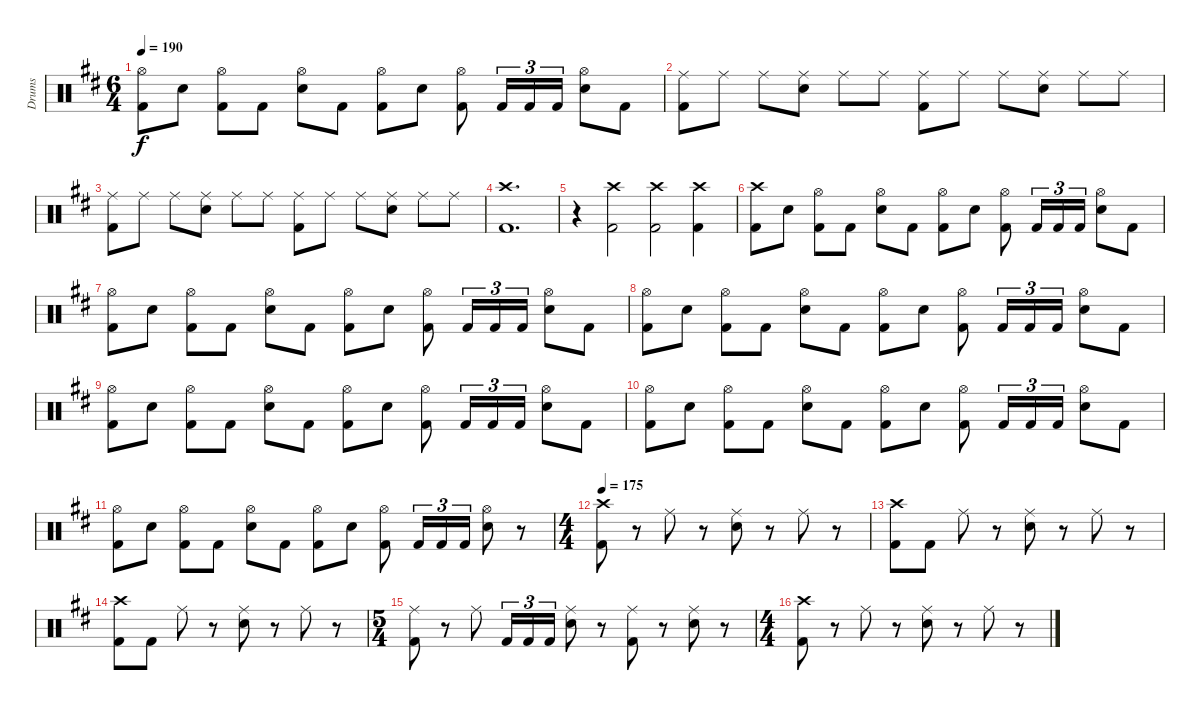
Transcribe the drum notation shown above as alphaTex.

\track ("Drums" "Drums") {instrument percussion}
\staff {score}
\articulation defaults
\ts (6 4)
\tempo 190
\clef neutral
\ks bminor
("Kick (hit) 2" "Hi-Hat (open)").8{dy f} "Electric Snare (hit)".8 ("Kick (hit) 2" "Hi-Hat (open)").8 "Kick (hit) 2".8 ("Electric Snare (hit)" "Hi-Hat (open)").8 "Kick (hit) 2".8 ("Kick (hit) 2" "Hi-Hat (open)").8 "Electric Snare (hit)".8 ("Kick (hit) 2" "Hi-Hat (open)").8 "Kick (hit) 2".16{tu (3 2)} "Kick (hit) 2".16{tu (3 2)} "Kick (hit) 2".16{tu (3 2)} ("Electric Snare (hit)" "Hi-Hat (open)").8 "Kick (hit) 2".8 |
("Kick (hit) 2" "Ride (middle)").8 "Ride (middle)".8 "Ride (middle)".8 ("Electric Snare (hit)" "Ride (middle)").8 "Ride (middle)".8 "Ride (middle)".8 ("Kick (hit) 2" "Ride (middle)").8 "Ride (middle)".8 "Ride (middle)".8 ("Electric Snare (hit)" "Ride (middle)").8 "Ride (middle)".8 "Ride (middle)".8 |
("Kick (hit) 2" "Ride (middle)").8 "Ride (middle)".8 "Ride (middle)".8 ("Electric Snare (hit)" "Ride (middle)").8 "Ride (middle)".8 "Ride (middle)".8 ("Kick (hit) 2" "Ride (middle)").8 "Ride (middle)".8 "Ride (middle)".8 ("Electric Snare (hit)" "Ride (middle)").8 "Ride (middle)".8 "Ride (middle)".8 |
("Kick (hit) 2" "Crash high (hit)").1{d} |
r.4 ("Kick (hit) 2" "Crash high (hit)").2 ("Kick (hit) 2" "Crash high (hit)").2 ("Kick (hit) 2" "Crash high (hit)").4 |
("Kick (hit) 2" "Crash high (hit)").8 "Electric Snare (hit)".8 ("Kick (hit) 2" "Hi-Hat (open)").8 "Kick (hit) 2".8 ("Electric Snare (hit)" "Hi-Hat (open)").8 "Kick (hit) 2".8 ("Kick (hit) 2" "Hi-Hat (open)").8 "Electric Snare (hit)".8 ("Kick (hit) 2" "Hi-Hat (open)").8 "Kick (hit) 2".16{tu (3 2)} "Kick (hit) 2".16{tu (3 2)} "Kick (hit) 2".16{tu (3 2)} ("Electric Snare (hit)" "Hi-Hat (open)").8 "Kick (hit) 2".8 |
("Kick (hit) 2" "Hi-Hat (open)").8 "Electric Snare (hit)".8 ("Kick (hit) 2" "Hi-Hat (open)").8 "Kick (hit) 2".8 ("Electric Snare (hit)" "Hi-Hat (open)").8 "Kick (hit) 2".8 ("Kick (hit) 2" "Hi-Hat (open)").8 "Electric Snare (hit)".8 ("Kick (hit) 2" "Hi-Hat (open)").8 "Kick (hit) 2".16{tu (3 2)} "Kick (hit) 2".16{tu (3 2)} "Kick (hit) 2".16{tu (3 2)} ("Electric Snare (hit)" "Hi-Hat (open)").8 "Kick (hit) 2".8 |
("Kick (hit) 2" "Hi-Hat (open)").8 "Electric Snare (hit)".8 ("Kick (hit) 2" "Hi-Hat (open)").8 "Kick (hit) 2".8 ("Electric Snare (hit)" "Hi-Hat (open)").8 "Kick (hit) 2".8 ("Kick (hit) 2" "Hi-Hat (open)").8 "Electric Snare (hit)".8 ("Kick (hit) 2" "Hi-Hat (open)").8 "Kick (hit) 2".16{tu (3 2)} "Kick (hit) 2".16{tu (3 2)} "Kick (hit) 2".16{tu (3 2)} ("Electric Snare (hit)" "Hi-Hat (open)").8 "Kick (hit) 2".8 |
("Kick (hit) 2" "Hi-Hat (open)").8 "Electric Snare (hit)".8 ("Kick (hit) 2" "Hi-Hat (open)").8 "Kick (hit) 2".8 ("Electric Snare (hit)" "Hi-Hat (open)").8 "Kick (hit) 2".8 ("Kick (hit) 2" "Hi-Hat (open)").8 "Electric Snare (hit)".8 ("Kick (hit) 2" "Hi-Hat (open)").8 "Kick (hit) 2".16{tu (3 2)} "Kick (hit) 2".16{tu (3 2)} "Kick (hit) 2".16{tu (3 2)} ("Electric Snare (hit)" "Hi-Hat (open)").8 "Kick (hit) 2".8 |
("Kick (hit) 2" "Hi-Hat (open)").8 "Electric Snare (hit)".8 ("Kick (hit) 2" "Hi-Hat (open)").8 "Kick (hit) 2".8 ("Electric Snare (hit)" "Hi-Hat (open)").8 "Kick (hit) 2".8 ("Kick (hit) 2" "Hi-Hat (open)").8 "Electric Snare (hit)".8 ("Kick (hit) 2" "Hi-Hat (open)").8 "Kick (hit) 2".16{tu (3 2)} "Kick (hit) 2".16{tu (3 2)} "Kick (hit) 2".16{tu (3 2)} ("Electric Snare (hit)" "Hi-Hat (open)").8 "Kick (hit) 2".8 |
("Kick (hit) 2" "Hi-Hat (open)").8 "Electric Snare (hit)".8 ("Kick (hit) 2" "Hi-Hat (open)").8 "Kick (hit) 2".8 ("Electric Snare (hit)" "Hi-Hat (open)").8 "Kick (hit) 2".8 ("Kick (hit) 2" "Hi-Hat (open)").8 "Electric Snare (hit)".8 ("Kick (hit) 2" "Hi-Hat (open)").8 "Kick (hit) 2".16{tu (3 2)} "Kick (hit) 2".16{tu (3 2)} "Kick (hit) 2".16{tu (3 2)} ("Electric Snare (hit)" "Hi-Hat (open)").8 r.8 |
\ts (4 4)
\tempo 175
("Kick (hit) 2" "Crash high (hit)").8 r.8 "Ride (middle)".8 r.8 ("Electric Snare (hit)" "Ride (middle)").8 r.8 "Ride (middle)".8 r.8 |
("Kick (hit) 2" "Crash high (hit)").8 "Kick (hit) 2".8 "Ride (middle)".8 r.8 ("Electric Snare (hit)" "Ride (middle)").8 r.8 "Ride (middle)".8 r.8 |
("Kick (hit) 2" "Crash high (hit)").8 "Kick (hit) 2".8 "Ride (middle)".8 r.8 ("Electric Snare (hit)" "Ride (middle)").8 r.8 "Ride (middle)".8 r.8 |
\ts (5 4)
("Kick (hit) 2" "Ride (middle)").8 r.8 "Ride (middle)".8 "Kick (hit) 2".16{tu (3 2)} "Kick (hit) 2".16{tu (3 2)} "Kick (hit) 2".16{tu (3 2)} ("Electric Snare (hit)" "Ride (middle)").8 r.8 ("Kick (hit) 2" "Ride (middle)").8 r.8 ("Electric Snare (hit)" "Ride (middle)").8 r.8 |
\ts (4 4)
("Kick (hit) 2" "Crash high (hit)").8 r.8 "Ride (middle)".8 r.8 ("Electric Snare (hit)" "Ride (middle)").8 r.8 "Ride (middle)".8 r.8
